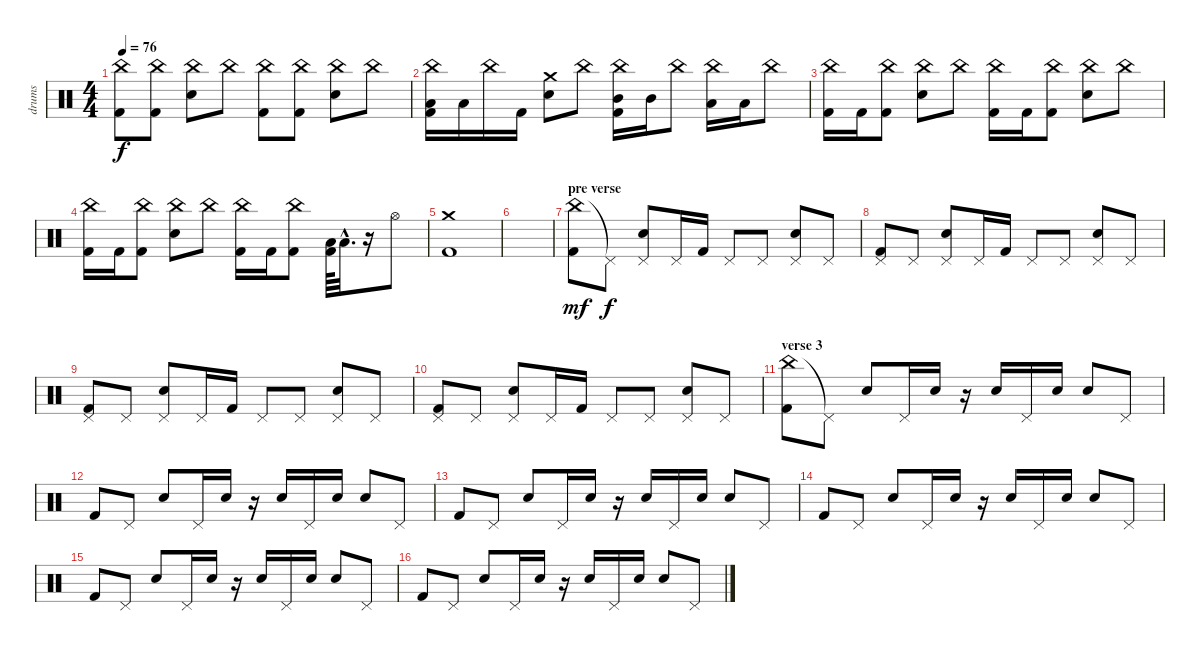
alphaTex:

\track ("drums" "drums") {instrument percussion}
\staff {score}
\articulation defaults
\ts (4 4)
\tempo 76
\clef neutral
\ks c
("China (hit)" "Kick (hit) 2").8{dy f} ("China (hit)" "Kick (hit) 2").8 ("China (hit)" "Snare (hit) 2").8 "China (hit)".8 ("China (hit)" "Kick (hit) 2").8 ("China (hit)" "Kick (hit) 2").8 ("China (hit)" "Snare (hit) 2").8 "China (hit)".8 |
("China (hit)" "Low Tom (hit)" "Kick (hit) 2").16 "Low Tom (hit)".16 "China (hit)".16 "Kick (hit) 2".16 ("Crash medium (hit)" "Snare (hit) 2").8 "China (hit)".8 ("China (hit)" "Mid Tom (hit)" "Kick (hit) 2").16 "Mid Tom (hit)".16 "China (hit)".8 ("China (hit)" "Low Tom (hit)").16 "Low Tom (hit)".16 "China (hit)".8 |
("China (hit)" "Kick (hit) 2").16 "Kick (hit) 2".16 ("China (hit)" "Kick (hit) 2").8 ("China (hit)" "Snare (hit) 2").8 "China (hit)".8 ("China (hit)" "Kick (hit) 2").16 "Kick (hit) 2".16 ("China (hit)" "Kick (hit) 2").8 ("China (hit)" "Snare (hit) 2").8 "China (hit)".8 |
("China (hit)" "Kick (hit) 2").16 "Kick (hit) 2".16 ("China (hit)" "Kick (hit) 2").8 ("China (hit)" "Snare (hit) 2").8 "China (hit)".8 ("China (hit)" "Kick (hit) 2").16 "Kick (hit) 2".16 ("China (hit)" "Kick (hit) 2").8 ("Low Tom (hit)" "Kick (hit) 2").64 "Low Tom (hit)"{hac}.32{d} r.16 "Hi-Hat (open)".8 |
("Crash medium (hit)" "Kick (hit) 2").1 |
|
\section ("" "pre verse")
("China (hit)" "Kick (hit) 2").8{dy mf} "Pedal Hi-Hat (hit)"{t}.8{dy f} ("Pedal Hi-Hat (hit)" "Snare (hit) 2").8 "Pedal Hi-Hat (hit)".16 "Kick (hit) 2".16 "Pedal Hi-Hat (hit)".8 "Pedal Hi-Hat (hit)".8 ("Pedal Hi-Hat (hit)" "Snare (hit) 2").8 "Pedal Hi-Hat (hit)".8 |
("Pedal Hi-Hat (hit)" "Kick (hit) 2").8 "Pedal Hi-Hat (hit)".8 ("Pedal Hi-Hat (hit)" "Snare (hit) 2").8 "Pedal Hi-Hat (hit)".16 "Kick (hit) 2".16 "Pedal Hi-Hat (hit)".8 "Pedal Hi-Hat (hit)".8 ("Pedal Hi-Hat (hit)" "Snare (hit) 2").8 "Pedal Hi-Hat (hit)".8 |
("Pedal Hi-Hat (hit)" "Kick (hit) 2").8 "Pedal Hi-Hat (hit)".8 ("Pedal Hi-Hat (hit)" "Snare (hit) 2").8 "Pedal Hi-Hat (hit)".16 "Kick (hit) 2".16 "Pedal Hi-Hat (hit)".8 "Pedal Hi-Hat (hit)".8 ("Pedal Hi-Hat (hit)" "Snare (hit) 2").8 "Pedal Hi-Hat (hit)".8 |
("Pedal Hi-Hat (hit)" "Kick (hit) 2").8 "Pedal Hi-Hat (hit)".8 ("Pedal Hi-Hat (hit)" "Snare (hit) 2").8 "Pedal Hi-Hat (hit)".16 "Kick (hit) 2".16 "Pedal Hi-Hat (hit)".8 "Pedal Hi-Hat (hit)".8 ("Pedal Hi-Hat (hit)" "Snare (hit) 2").8 "Pedal Hi-Hat (hit)".8 |
\section ("" "verse 3")
("China (hit)" "Kick (hit) 2").8 "Pedal Hi-Hat (hit)"{t}.8 "Snare (hit) 2".8 "Pedal Hi-Hat (hit)".16 "Snare (hit) 2".16 r.16 "Snare (hit) 2".16 "Pedal Hi-Hat (hit)".16 "Snare (hit) 2".16 "Snare (hit) 2".8 "Pedal Hi-Hat (hit)".8 |
"Kick (hit) 2".8 "Pedal Hi-Hat (hit)".8 "Snare (hit) 2".8 "Pedal Hi-Hat (hit)".16 "Snare (hit) 2".16 r.16 "Snare (hit) 2".16 "Pedal Hi-Hat (hit)".16 "Snare (hit) 2".16 "Snare (hit) 2".8 "Pedal Hi-Hat (hit)".8 |
"Kick (hit) 2".8 "Pedal Hi-Hat (hit)".8 "Snare (hit) 2".8 "Pedal Hi-Hat (hit)".16 "Snare (hit) 2".16 r.16 "Snare (hit) 2".16 "Pedal Hi-Hat (hit)".16 "Snare (hit) 2".16 "Snare (hit) 2".8 "Pedal Hi-Hat (hit)".8 |
"Kick (hit) 2".8 "Pedal Hi-Hat (hit)".8 "Snare (hit) 2".8 "Pedal Hi-Hat (hit)".16 "Snare (hit) 2".16 r.16 "Snare (hit) 2".16 "Pedal Hi-Hat (hit)".16 "Snare (hit) 2".16 "Snare (hit) 2".8 "Pedal Hi-Hat (hit)".8 |
"Kick (hit) 2".8 "Pedal Hi-Hat (hit)".8 "Snare (hit) 2".8 "Pedal Hi-Hat (hit)".16 "Snare (hit) 2".16 r.16 "Snare (hit) 2".16 "Pedal Hi-Hat (hit)".16 "Snare (hit) 2".16 "Snare (hit) 2".8 "Pedal Hi-Hat (hit)".8 |
"Kick (hit) 2".8 "Pedal Hi-Hat (hit)".8 "Snare (hit) 2".8 "Pedal Hi-Hat (hit)".16 "Snare (hit) 2".16 r.16 "Snare (hit) 2".16 "Pedal Hi-Hat (hit)".16 "Snare (hit) 2".16 "Snare (hit) 2".8 "Pedal Hi-Hat (hit)".8
